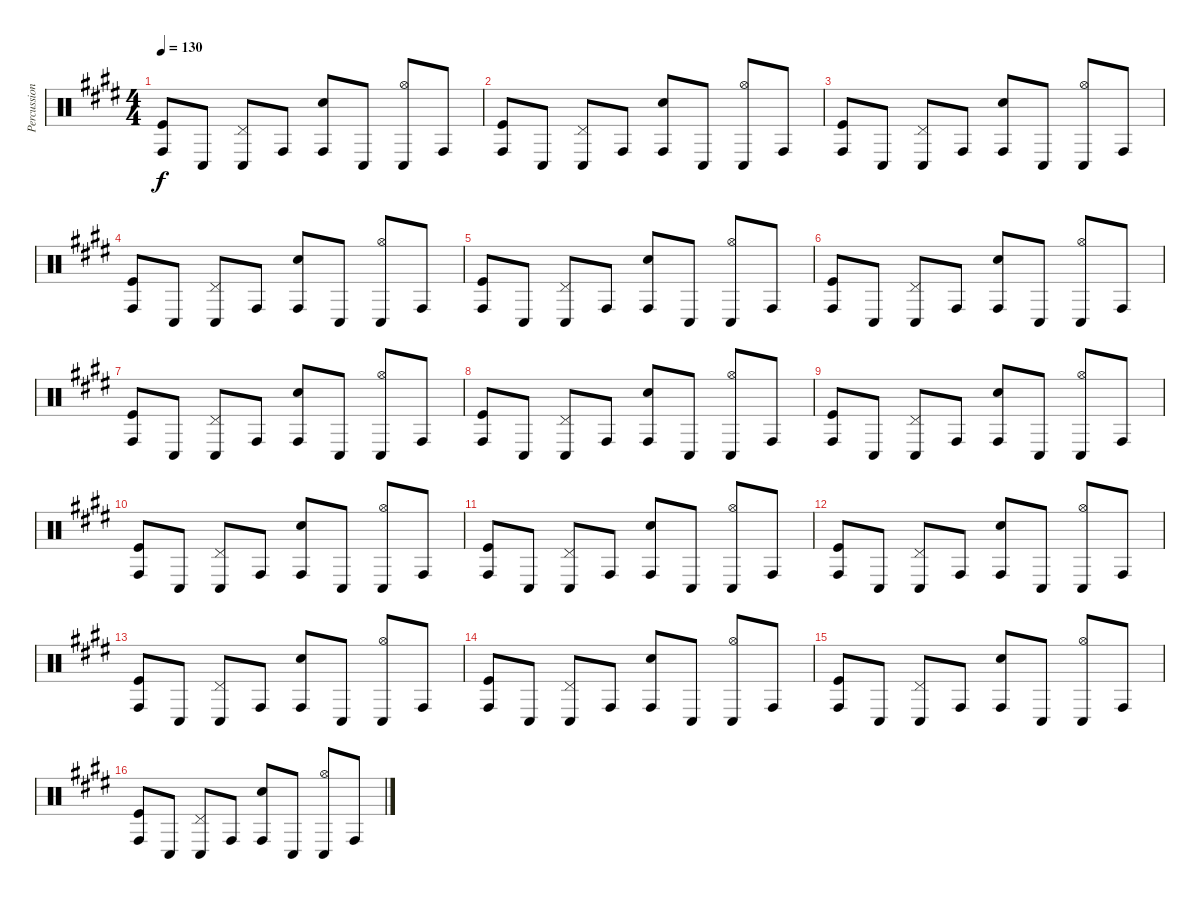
\track ("Percussion" "Percussion") {instrument percussion}
\staff {score}
\articulation defaults
\ts (4 4)
\tempo 130
\clef neutral
\ks e
("Conga high (hit)" "Kick (hit)").8{dy f} "Conga low (hit)".8 ("Pedal Hi-Hat (hit)" "Conga low (hit)").8 "Conga high (hit)".8 ("Conga high (hit)" "Snare (hit) 2").8 "Conga low (hit)".8 ("Hi-Hat (open)" "Conga low (hit)").8 "Conga high (hit)".8 |
("Conga high (hit)" "Kick (hit)").8 "Conga low (hit)".8 ("Pedal Hi-Hat (hit)" "Conga low (hit)").8 "Conga high (hit)".8 ("Conga high (hit)" "Snare (hit) 2").8 "Conga low (hit)".8 ("Hi-Hat (open)" "Conga low (hit)").8 "Conga high (hit)".8 |
("Conga high (hit)" "Kick (hit)").8 "Conga low (hit)".8 ("Pedal Hi-Hat (hit)" "Conga low (hit)").8 "Conga high (hit)".8 ("Conga high (hit)" "Snare (hit) 2").8 "Conga low (hit)".8 ("Hi-Hat (open)" "Conga low (hit)").8 "Conga high (hit)".8 |
("Conga high (hit)" "Kick (hit)").8 "Conga low (hit)".8 ("Pedal Hi-Hat (hit)" "Conga low (hit)").8 "Conga high (hit)".8 ("Conga high (hit)" "Snare (hit) 2").8 "Conga low (hit)".8 ("Hi-Hat (open)" "Conga low (hit)").8 "Conga high (hit)".8 |
("Conga high (hit)" "Kick (hit)").8 "Conga low (hit)".8 ("Pedal Hi-Hat (hit)" "Conga low (hit)").8 "Conga high (hit)".8 ("Conga high (hit)" "Snare (hit) 2").8 "Conga low (hit)".8 ("Hi-Hat (open)" "Conga low (hit)").8 "Conga high (hit)".8 |
("Conga high (hit)" "Kick (hit)").8 "Conga low (hit)".8 ("Pedal Hi-Hat (hit)" "Conga low (hit)").8 "Conga high (hit)".8 ("Conga high (hit)" "Snare (hit) 2").8 "Conga low (hit)".8 ("Hi-Hat (open)" "Conga low (hit)").8 "Conga high (hit)".8 |
("Conga high (hit)" "Kick (hit)").8 "Conga low (hit)".8 ("Pedal Hi-Hat (hit)" "Conga low (hit)").8 "Conga high (hit)".8 ("Conga high (hit)" "Snare (hit) 2").8 "Conga low (hit)".8 ("Hi-Hat (open)" "Conga low (hit)").8 "Conga high (hit)".8 |
("Conga high (hit)" "Kick (hit)").8 "Conga low (hit)".8 ("Pedal Hi-Hat (hit)" "Conga low (hit)").8 "Conga high (hit)".8 ("Conga high (hit)" "Snare (hit) 2").8 "Conga low (hit)".8 ("Hi-Hat (open)" "Conga low (hit)").8 "Conga high (hit)".8 |
("Conga high (hit)" "Kick (hit)").8 "Conga low (hit)".8 ("Pedal Hi-Hat (hit)" "Conga low (hit)").8 "Conga high (hit)".8 ("Conga high (hit)" "Snare (hit) 2").8 "Conga low (hit)".8 ("Hi-Hat (open)" "Conga low (hit)").8 "Conga high (hit)".8 |
("Conga high (hit)" "Kick (hit)").8 "Conga low (hit)".8 ("Pedal Hi-Hat (hit)" "Conga low (hit)").8 "Conga high (hit)".8 ("Conga high (hit)" "Snare (hit) 2").8 "Conga low (hit)".8 ("Hi-Hat (open)" "Conga low (hit)").8 "Conga high (hit)".8 |
("Conga high (hit)" "Kick (hit)").8 "Conga low (hit)".8 ("Pedal Hi-Hat (hit)" "Conga low (hit)").8 "Conga high (hit)".8 ("Conga high (hit)" "Snare (hit) 2").8 "Conga low (hit)".8 ("Hi-Hat (open)" "Conga low (hit)").8 "Conga high (hit)".8 |
("Conga high (hit)" "Kick (hit)").8 "Conga low (hit)".8 ("Pedal Hi-Hat (hit)" "Conga low (hit)").8 "Conga high (hit)".8 ("Conga high (hit)" "Snare (hit) 2").8 "Conga low (hit)".8 ("Hi-Hat (open)" "Conga low (hit)").8 "Conga high (hit)".8 |
("Conga high (hit)" "Kick (hit)").8 "Conga low (hit)".8 ("Pedal Hi-Hat (hit)" "Conga low (hit)").8 "Conga high (hit)".8 ("Conga high (hit)" "Snare (hit) 2").8 "Conga low (hit)".8 ("Hi-Hat (open)" "Conga low (hit)").8 "Conga high (hit)".8 |
("Conga high (hit)" "Kick (hit)").8 "Conga low (hit)".8 ("Pedal Hi-Hat (hit)" "Conga low (hit)").8 "Conga high (hit)".8 ("Conga high (hit)" "Snare (hit) 2").8 "Conga low (hit)".8 ("Hi-Hat (open)" "Conga low (hit)").8 "Conga high (hit)".8 |
("Conga high (hit)" "Kick (hit)").8 "Conga low (hit)".8 ("Pedal Hi-Hat (hit)" "Conga low (hit)").8 "Conga high (hit)".8 ("Conga high (hit)" "Snare (hit) 2").8 "Conga low (hit)".8 ("Hi-Hat (open)" "Conga low (hit)").8 "Conga high (hit)".8 |
("Conga high (hit)" "Kick (hit)").8 "Conga low (hit)".8 ("Pedal Hi-Hat (hit)" "Conga low (hit)").8 "Conga high (hit)".8 ("Conga high (hit)" "Snare (hit) 2").8 "Conga low (hit)".8 ("Hi-Hat (open)" "Conga low (hit)").8 "Conga high (hit)".8
